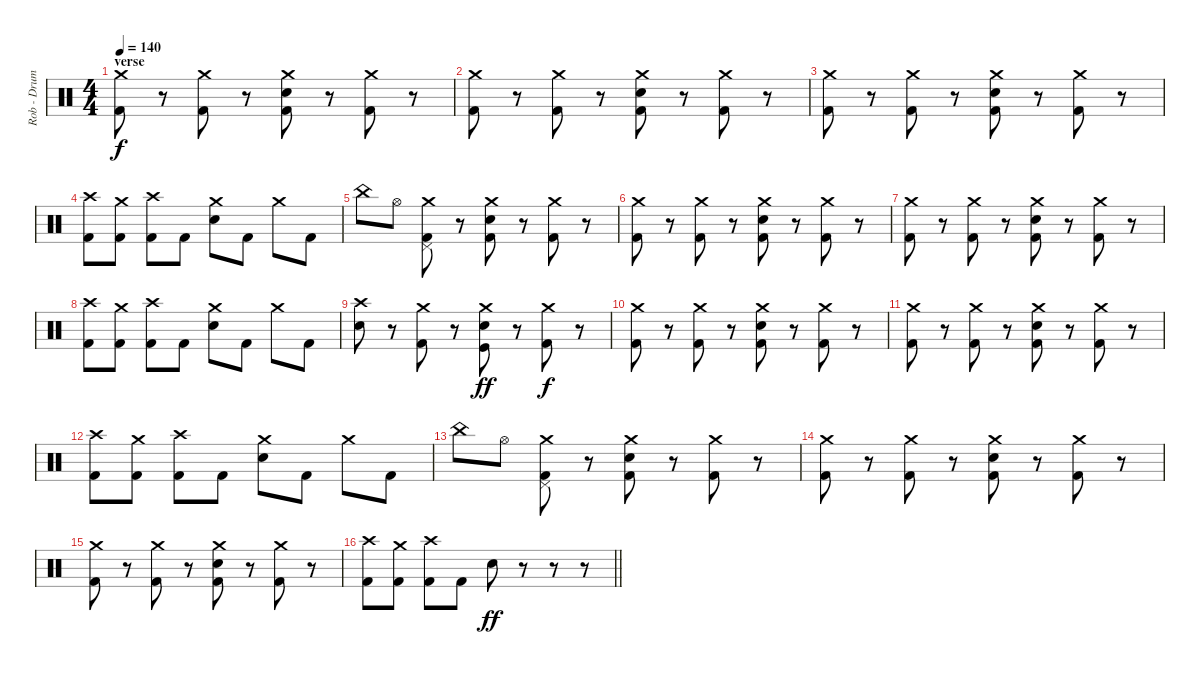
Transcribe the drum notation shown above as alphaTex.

\track ("Rob - Drums" "Rob - Drum") {instrument percussion}
\staff {score}
\articulation defaults
\ts (4 4)
\section ("" "verse")
\tempo 140
\clef neutral
\ks c
("Crash medium (hit)" "Kick (hit) 2").8{dy f} r.8 ("Crash medium (hit)" "Kick (hit) 2").8 r.8 ("Crash medium (hit)" "Electric Snare (hit)" "Kick (hit) 2").8 r.8 ("Crash medium (hit)" "Kick (hit) 2").8 r.8 |
("Crash medium (hit)" "Kick (hit) 2").8 r.8 ("Crash medium (hit)" "Kick (hit) 2").8 r.8 ("Crash medium (hit)" "Electric Snare (hit)" "Kick (hit) 2").8 r.8 ("Crash medium (hit)" "Kick (hit) 2").8 r.8 |
("Crash medium (hit)" "Kick (hit) 2").8 r.8 ("Crash medium (hit)" "Kick (hit) 2").8 r.8 ("Crash medium (hit)" "Electric Snare (hit)" "Kick (hit) 2").8 r.8 ("Crash medium (hit)" "Kick (hit) 2").8 r.8 |
("Crash high (hit)" "Kick (hit) 2").8 ("Crash medium (hit)" "Kick (hit) 2").8 ("Crash high (hit)" "Kick (hit) 2").8 "Kick (hit) 2".8 ("Crash medium (hit)" "Electric Snare (hit)").8 "Kick (hit) 2".8 "Crash medium (hit)".8 "Kick (hit) 2".8 |
"China (hit)".8 "Hi-Hat (open)".8 ("Crash medium (hit)" "Pedal Hi-Hat (hit)" "Kick (hit) 2").8 r.8 ("Crash medium (hit)" "Electric Snare (hit)" "Kick (hit) 2").8 r.8 ("Crash medium (hit)" "Kick (hit) 2").8 r.8 |
("Crash medium (hit)" "Kick (hit) 2").8 r.8 ("Crash medium (hit)" "Kick (hit) 2").8 r.8 ("Crash medium (hit)" "Electric Snare (hit)" "Kick (hit) 2").8 r.8 ("Crash medium (hit)" "Kick (hit) 2").8 r.8 |
("Crash medium (hit)" "Kick (hit) 2").8 r.8 ("Crash medium (hit)" "Kick (hit) 2").8 r.8 ("Crash medium (hit)" "Electric Snare (hit)" "Kick (hit) 2").8 r.8 ("Crash medium (hit)" "Kick (hit) 2").8 r.8 |
("Crash high (hit)" "Kick (hit) 2").8 ("Crash medium (hit)" "Kick (hit) 2").8 ("Crash high (hit)" "Kick (hit) 2").8 "Kick (hit) 2".8 ("Crash medium (hit)" "Electric Snare (hit)").8 "Kick (hit) 2".8 "Crash medium (hit)".8 "Kick (hit) 2".8 |
("Crash high (hit)" "Electric Snare (hit)").8 r.8 ("Crash medium (hit)" "Kick (hit) 2").8 r.8 ("Crash medium (hit)" "Electric Snare (hit)" "Kick (hit)").8{dy ff} r.8 ("Crash medium (hit)" "Kick (hit) 2").8{dy f} r.8 |
("Crash medium (hit)" "Kick (hit) 2").8 r.8 ("Crash medium (hit)" "Kick (hit) 2").8 r.8 ("Crash medium (hit)" "Electric Snare (hit)" "Kick (hit) 2").8 r.8 ("Crash medium (hit)" "Kick (hit) 2").8 r.8 |
("Crash medium (hit)" "Kick (hit) 2").8 r.8 ("Crash medium (hit)" "Kick (hit) 2").8 r.8 ("Crash medium (hit)" "Electric Snare (hit)" "Kick (hit) 2").8 r.8 ("Crash medium (hit)" "Kick (hit) 2").8 r.8 |
("Crash high (hit)" "Kick (hit) 2").8 ("Crash medium (hit)" "Kick (hit) 2").8 ("Crash high (hit)" "Kick (hit) 2").8 "Kick (hit) 2".8 ("Crash medium (hit)" "Electric Snare (hit)").8 "Kick (hit) 2".8 "Crash medium (hit)".8 "Kick (hit) 2".8 |
"China (hit)".8 "Hi-Hat (open)".8 ("Crash medium (hit)" "Pedal Hi-Hat (hit)" "Kick (hit) 2").8 r.8 ("Crash medium (hit)" "Electric Snare (hit)" "Kick (hit) 2").8 r.8 ("Crash medium (hit)" "Kick (hit) 2").8 r.8 |
("Crash medium (hit)" "Kick (hit) 2").8 r.8 ("Crash medium (hit)" "Kick (hit) 2").8 r.8 ("Crash medium (hit)" "Electric Snare (hit)" "Kick (hit) 2").8 r.8 ("Crash medium (hit)" "Kick (hit) 2").8 r.8 |
("Crash medium (hit)" "Kick (hit) 2").8 r.8 ("Crash medium (hit)" "Kick (hit) 2").8 r.8 ("Crash medium (hit)" "Electric Snare (hit)" "Kick (hit) 2").8 r.8 ("Crash medium (hit)" "Kick (hit) 2").8 r.8 |
\barLineRight lightlight
("Crash high (hit)" "Kick (hit) 2").8 ("Crash medium (hit)" "Kick (hit) 2").8 ("Crash high (hit)" "Kick (hit) 2").8 "Kick (hit) 2".8 "Electric Snare (hit)".8{dy ff} r.8 r.8 r.8
